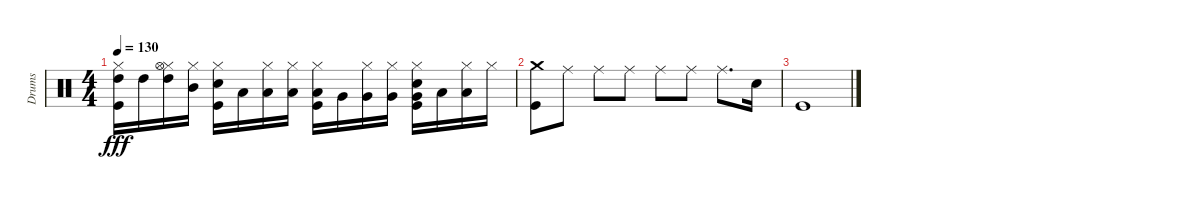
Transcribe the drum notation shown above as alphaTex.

\track ("Drums" "Drums") {instrument percussion}
\staff {score}
\articulation defaults
\ts (4 4)
\tempo 130
\clef neutral
\ks c
("Kick (hit)" "Hi-Hat (closed)" "High Tom (hit)").16{dy fff} "High Tom (hit)".16 ("Hi-Hat (closed)" "Hi-Hat (open)" "High Tom (hit)").16 ("Hi-Hat (closed)" "Mid Tom (hit)").16 ("Kick (hit)" "Electric Snare (hit)" "Hi-Hat (closed)").16 "Low Tom (hit)".16 ("Hi-Hat (closed)" "Low Tom (hit)").16 ("Hi-Hat (closed)" "Low Tom (hit)").16 ("Kick (hit)" "Hi-Hat (closed)" "Low Tom (hit)").16 "Very Low Tom (hit)".16 ("Hi-Hat (closed)" "Very Low Tom (hit)").16 ("Hi-Hat (closed)" "Very Low Tom (hit)").16 ("Kick (hit)" "Electric Snare (hit)" "Hi-Hat (closed)" "Very Low Tom (hit)").16 "Low Floor Tom (hit)".16 ("Low Floor Tom (hit)" "Hi-Hat (closed)").16 "Hi-Hat (closed)".16 |
("Crash medium (hit)" "Kick (hit)").8 "Ride (middle)".8 "Ride (middle)".8 "Ride (middle)".8 "Ride (middle)".8 "Ride (middle)".8 "Ride (middle)".8{d} "Electric Snare (hit)".16 |
"Kick (hit)".1
